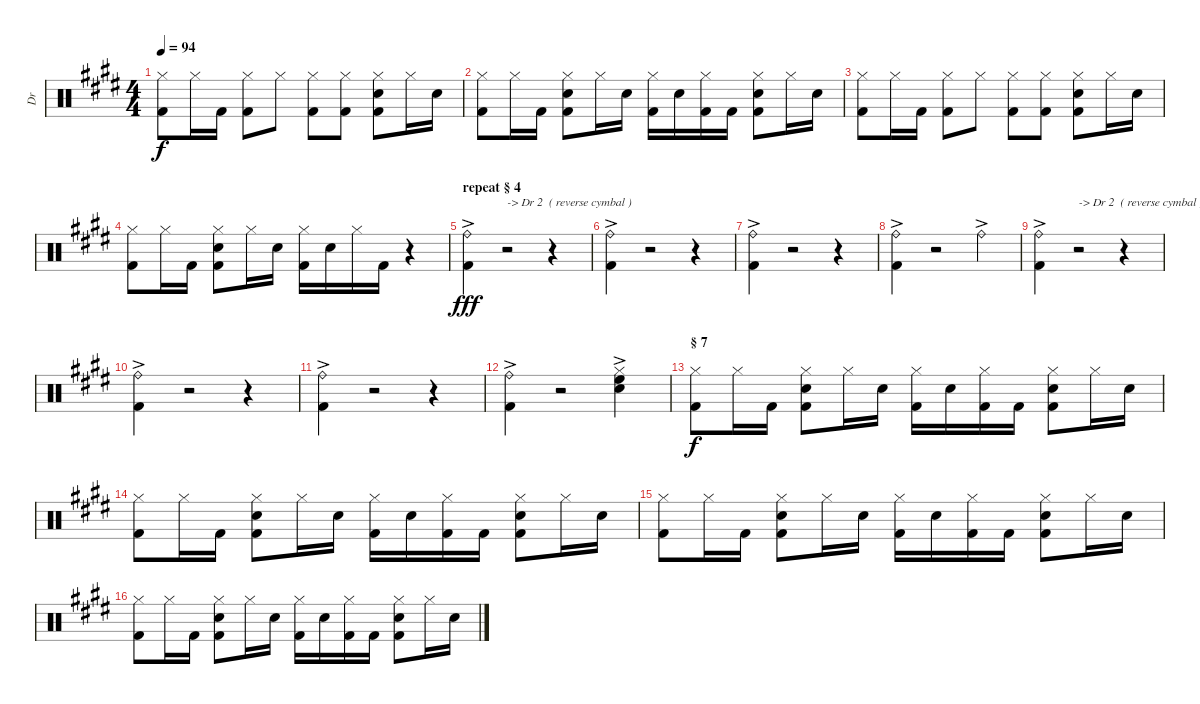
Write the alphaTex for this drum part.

\track ("Dr" "Dr") {instrument percussion}
\staff {score}
\articulation defaults
\ts (4 4)
\tempo 94
\clef neutral
\ks e
("Hi-Hat (closed)" "Kick (hit) 2").8{dy f} "Hi-Hat (closed)".16 "Kick (hit) 2".16 ("Hi-Hat (closed)" "Kick (hit) 2").8 "Hi-Hat (closed)".8 ("Hi-Hat (closed)" "Kick (hit) 2").8 ("Hi-Hat (closed)" "Kick (hit) 2").8 ("Hi-Hat (closed)" "Electric Snare (hit)" "Kick (hit) 2").8 "Hi-Hat (closed)".16 "Electric Snare (hit)".16 |
("Hi-Hat (closed)" "Kick (hit) 2").8 "Hi-Hat (closed)".16 "Kick (hit) 2".16 ("Hi-Hat (closed)" "Electric Snare (hit)" "Kick (hit) 2").8 "Hi-Hat (closed)".16 "Electric Snare (hit)".16 ("Hi-Hat (closed)" "Kick (hit) 2").16 "Electric Snare (hit)".16 ("Hi-Hat (closed)" "Kick (hit) 2").16 "Kick (hit) 2".16 ("Hi-Hat (closed)" "Electric Snare (hit)" "Kick (hit) 2").8 "Hi-Hat (closed)".16 "Electric Snare (hit)".16 |
("Hi-Hat (closed)" "Kick (hit) 2").8 "Hi-Hat (closed)".16 "Kick (hit) 2".16 ("Hi-Hat (closed)" "Kick (hit) 2").8 "Hi-Hat (closed)".8 ("Hi-Hat (closed)" "Kick (hit) 2").8 ("Hi-Hat (closed)" "Kick (hit) 2").8 ("Hi-Hat (closed)" "Electric Snare (hit)" "Kick (hit) 2").8 "Hi-Hat (closed)".16 "Electric Snare (hit)".16 |
("Hi-Hat (closed)" "Kick (hit) 2").8 "Hi-Hat (closed)".16 "Kick (hit) 2".16 ("Hi-Hat (closed)" "Electric Snare (hit)" "Kick (hit) 2").8 "Hi-Hat (closed)".16 "Electric Snare (hit)".16 ("Hi-Hat (closed)" "Kick (hit) 2").16 "Electric Snare (hit)".16 "Hi-Hat (closed)".16 "Kick (hit) 2".16 r.4 |
\section ("" "repeat § 4")
("Ride (bell)"{ac} "Kick (hit) 2"{ac}).4{dy fff} r.2{txt "-> Dr 2  ( reverse cymbal )"} r.4 |
("Ride (bell)"{ac} "Kick (hit) 2"{ac}).4 r.2 r.4 |
("Ride (bell)"{ac} "Kick (hit) 2"{ac}).4 r.2 r.4 |
("Ride (bell)"{ac} "Kick (hit) 2"{ac}).4 r.2 "Ride (bell)"{ac}.4 |
("Ride (bell)"{ac} "Kick (hit) 2"{ac}).4 r.2{txt "-> Dr 2  ( reverse cymbal )"} r.4 |
("Ride (bell)"{ac} "Kick (hit) 2"{ac}).4 r.2 r.4 |
("Ride (bell)"{ac} "Kick (hit) 2"{ac}).4 r.2 r.4 |
("Ride (bell)"{ac} "Kick (hit) 2"{ac}).4 r.2 ("Hi-Hat (closed)"{ac} "Electric Snare (hit)"{ac} "High Floor Tom (hit)"{ac}).4 |
\section ("" "§ 7")
("Hi-Hat (closed)" "Kick (hit) 2").8{dy f} "Hi-Hat (closed)".16 "Kick (hit) 2".16 ("Hi-Hat (closed)" "Electric Snare (hit)" "Kick (hit) 2").8 "Hi-Hat (closed)".16 "Electric Snare (hit)".16 ("Hi-Hat (closed)" "Kick (hit) 2").16 "Electric Snare (hit)".16 ("Hi-Hat (closed)" "Kick (hit) 2").16 "Kick (hit) 2".16 ("Hi-Hat (closed)" "Electric Snare (hit)" "Kick (hit) 2").8 "Hi-Hat (closed)".16 "Electric Snare (hit)".16 |
("Hi-Hat (closed)" "Kick (hit) 2").8 "Hi-Hat (closed)".16 "Kick (hit) 2".16 ("Hi-Hat (closed)" "Electric Snare (hit)" "Kick (hit) 2").8 "Hi-Hat (closed)".16 "Electric Snare (hit)".16 ("Hi-Hat (closed)" "Kick (hit) 2").16 "Electric Snare (hit)".16 ("Hi-Hat (closed)" "Kick (hit) 2").16 "Kick (hit) 2".16 ("Hi-Hat (closed)" "Electric Snare (hit)" "Kick (hit) 2").8 "Hi-Hat (closed)".16 "Electric Snare (hit)".16 |
("Hi-Hat (closed)" "Kick (hit) 2").8 "Hi-Hat (closed)".16 "Kick (hit) 2".16 ("Hi-Hat (closed)" "Electric Snare (hit)" "Kick (hit) 2").8 "Hi-Hat (closed)".16 "Electric Snare (hit)".16 ("Hi-Hat (closed)" "Kick (hit) 2").16 "Electric Snare (hit)".16 ("Hi-Hat (closed)" "Kick (hit) 2").16 "Kick (hit) 2".16 ("Hi-Hat (closed)" "Electric Snare (hit)" "Kick (hit) 2").8 "Hi-Hat (closed)".16 "Electric Snare (hit)".16 |
("Hi-Hat (closed)" "Kick (hit) 2").8 "Hi-Hat (closed)".16 "Kick (hit) 2".16 ("Hi-Hat (closed)" "Electric Snare (hit)" "Kick (hit) 2").8 "Hi-Hat (closed)".16 "Electric Snare (hit)".16 ("Hi-Hat (closed)" "Kick (hit) 2").16 "Electric Snare (hit)".16 ("Hi-Hat (closed)" "Kick (hit) 2").16 "Kick (hit) 2".16 ("Hi-Hat (closed)" "Electric Snare (hit)" "Kick (hit) 2").8 "Hi-Hat (closed)".16 "Electric Snare (hit)".16
